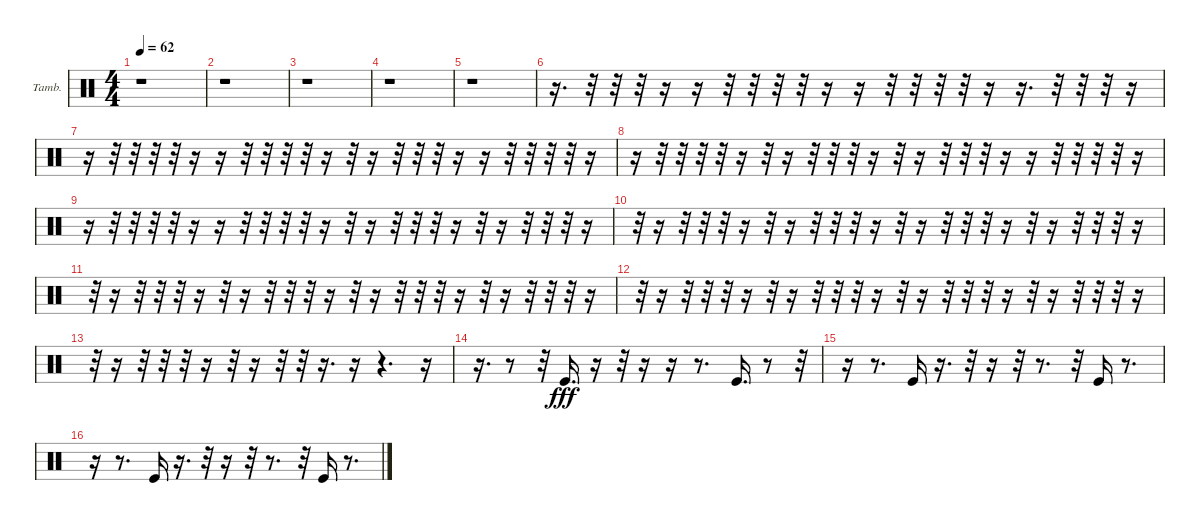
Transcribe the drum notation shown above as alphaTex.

\bracketExtendMode groupsimilarinstruments
\firstSystemTrackNameOrientation horizontal
\otherSystemsTrackNameOrientation horizontal
\track ("Tambourine" "Tamb.") {instrument percussion}
\staff {score}
\articulation defaults
\ts (4 4)
\tempo 62
\clef neutral
\ks c
r.1{dy fff} |
r.1 |
r.1 |
r.1 |
r.1 |
r.16{d} r.32 r.32 r.32 r.16 r.16 r.32 r.32 r.32 r.32 r.16 r.16 r.32 r.32 r.32 r.32 r.16 r.16{d} r.32 r.32 r.32 r.16 |
r.16 r.32 r.32 r.32 r.32 r.16 r.16 r.32 r.32 r.32 r.32 r.16 r.32 r.16 r.32 r.32 r.32 r.16 r.16 r.32 r.32 r.32 r.32 r.16 |
r.16 r.32 r.32 r.32 r.32 r.16 r.32 r.16 r.32 r.32 r.32 r.16 r.32 r.16 r.32 r.32 r.32 r.16 r.16 r.32 r.32 r.32 r.32 r.16 |
r.16 r.32 r.32 r.32 r.32 r.16 r.16 r.32 r.32 r.32 r.32 r.16 r.32 r.16 r.32 r.32 r.32 r.16 r.32 r.16 r.32 r.32 r.32 r.16 |
r.32 r.16 r.32 r.32 r.32 r.16 r.32 r.16 r.32 r.32 r.32 r.16 r.32 r.16 r.32 r.32 r.32 r.16 r.32 r.16 r.32 r.32 r.32 r.16 |
r.32 r.16 r.32 r.32 r.32 r.16 r.32 r.16 r.32 r.32 r.32 r.16 r.32 r.16 r.32 r.32 r.32 r.16 r.32 r.16 r.32 r.32 r.32 r.16 |
r.32 r.16 r.32 r.32 r.32 r.16 r.32 r.16 r.32 r.32 r.32 r.16 r.32 r.16 r.32 r.32 r.32 r.16 r.32 r.16 r.32 r.32 r.32 r.16 |
r.32 r.16 r.32 r.32 r.32 r.16 r.32 r.16 r.32 r.32 r.16{d} r.16 r.4{d} r.16 |
r.16{d} r.8 r.32 "Kick (hit)".16{d} r.16 r.32 r.16 r.16 r.8{d} "Kick (hit)".16{d} r.8 r.32 |
r.16 r.8{d} "Kick (hit)".16 r.16{d} r.32 r.16 r.32 r.8{d} r.32 "Kick (hit)".16 r.8{d} |
r.16 r.8{d} "Kick (hit)".16 r.16{d} r.32 r.16 r.32 r.8{d} r.32 "Kick (hit)".16 r.8{d}
